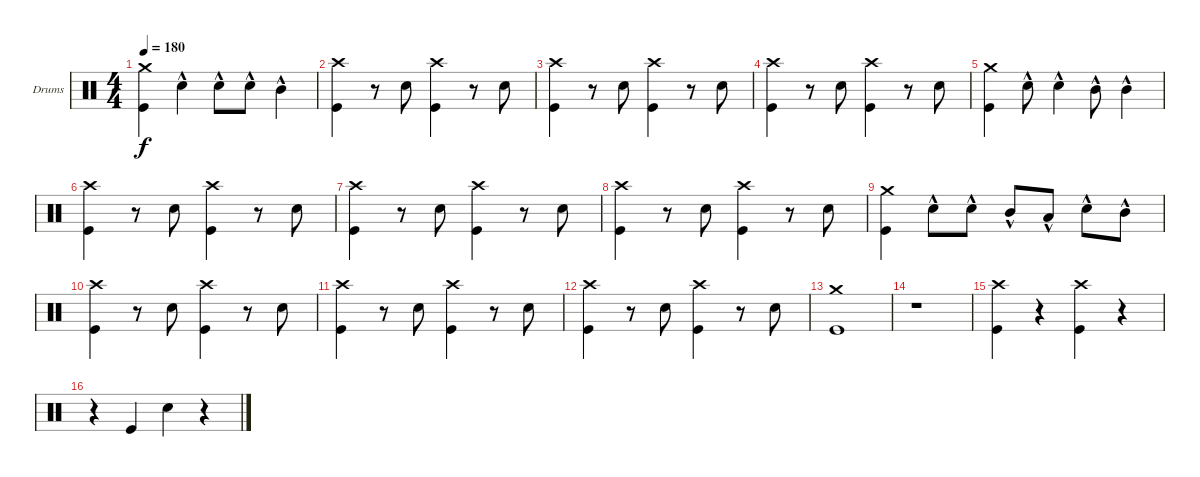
\bracketExtendMode groupsimilarinstruments
\firstSystemTrackNameOrientation horizontal
\otherSystemsTrackNameOrientation horizontal
\track ("Drumkit" "Drums") {solo instrument percussion}
\staff {score}
\articulation defaults
\ts (4 4)
\tempo 180
\clef neutral
\ks c
("Crash medium (hit)" "Kick (hit)").4{dy f} "Snare (hit) 2"{hac}.4 "Snare (hit) 2"{hac}.8 "Snare (hit) 2"{hac}.8 "Mid Tom (hit)"{hac}.4 |
("Crash high (hit)" "Kick (hit)").4 r.8 "Snare (hit) 2".8 ("Crash high (hit)" "Kick (hit)").4 r.8 "Snare (hit) 2".8 |
("Crash high (hit)" "Kick (hit)").4 r.8 "Snare (hit) 2".8 ("Crash high (hit)" "Kick (hit)").4 r.8 "Snare (hit) 2".8 |
("Crash high (hit)" "Kick (hit)").4 r.8 "Snare (hit) 2".8 ("Crash high (hit)" "Kick (hit)").4 r.8 "Snare (hit) 2".8 |
("Crash medium (hit)" "Kick (hit)").4 "Snare (hit) 2"{hac}.8 "Snare (hit) 2"{hac}.4 "Mid Tom (hit)"{hac}.8 "Mid Tom (hit)"{hac}.4 |
("Crash high (hit)" "Kick (hit)").4 r.8 "Snare (hit) 2".8 ("Crash high (hit)" "Kick (hit)").4 r.8 "Snare (hit) 2".8 |
("Crash high (hit)" "Kick (hit)").4 r.8 "Snare (hit) 2".8 ("Crash high (hit)" "Kick (hit)").4 r.8 "Snare (hit) 2".8 |
("Crash high (hit)" "Kick (hit)").4 r.8 "Snare (hit) 2".8 ("Crash high (hit)" "Kick (hit)").4 r.8 "Snare (hit) 2".8 |
("Crash medium (hit)" "Kick (hit)").4 "Snare (hit) 2"{hac}.8 "Snare (hit) 2"{hac}.8 "Mid Tom (hit)"{hac}.8 "Low Tom (hit)"{hac}.8 "Snare (hit) 2"{hac}.8 "Mid Tom (hit)"{hac}.8 |
("Crash high (hit)" "Kick (hit)").4 r.8 "Snare (hit) 2".8 ("Crash high (hit)" "Kick (hit)").4 r.8 "Snare (hit) 2".8 |
("Crash high (hit)" "Kick (hit)").4 r.8 "Snare (hit) 2".8 ("Crash high (hit)" "Kick (hit)").4 r.8 "Snare (hit) 2".8 |
("Crash high (hit)" "Kick (hit)").4 r.8 "Snare (hit) 2".8 ("Crash high (hit)" "Kick (hit)").4 r.8 "Snare (hit) 2".8 |
("Crash medium (hit)" "Kick (hit)").1 |
r.1 |
("Crash high (hit)" "Kick (hit)").4 r.4 ("Crash high (hit)" "Kick (hit)").4 r.4 |
r.4 "Kick (hit)".4 "Snare (hit) 2".4 r.4
